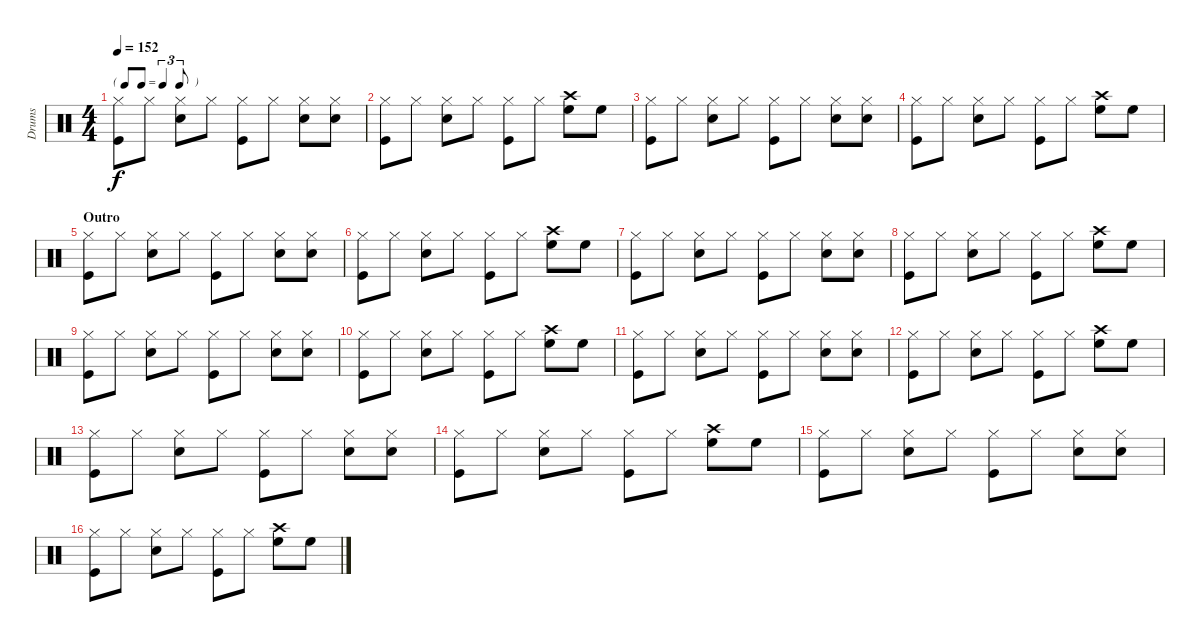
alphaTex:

\track ("Drums" "Drums") {instrument percussion}
\staff {score}
\articulation defaults
\ts (4 4)
\tf triplet8th
\tempo 152
\clef neutral
\ks c
("Hi-Hat (closed)" "Kick (hit)").8{dy f} "Hi-Hat (closed)".8 ("Hi-Hat (closed)" "Snare (hit) 2").8 "Hi-Hat (closed)".8 ("Hi-Hat (closed)" "Kick (hit)").8 "Hi-Hat (closed)".8 ("Hi-Hat (closed)" "Snare (hit) 2").8 ("Hi-Hat (closed)" "Snare (hit) 2").8 |
("Hi-Hat (closed)" "Kick (hit)").8 "Hi-Hat (closed)".8 ("Hi-Hat (closed)" "Snare (hit) 2").8 "Hi-Hat (closed)".8 ("Hi-Hat (closed)" "Kick (hit)").8 "Hi-Hat (closed)".8 ("Crash high (hit)" "High Floor Tom (hit)").8 "High Floor Tom (hit)".8 |
("Hi-Hat (closed)" "Kick (hit)").8 "Hi-Hat (closed)".8 ("Hi-Hat (closed)" "Snare (hit) 2").8 "Hi-Hat (closed)".8 ("Hi-Hat (closed)" "Kick (hit)").8 "Hi-Hat (closed)".8 ("Hi-Hat (closed)" "Snare (hit) 2").8 ("Hi-Hat (closed)" "Snare (hit) 2").8 |
("Hi-Hat (closed)" "Kick (hit)").8 "Hi-Hat (closed)".8 ("Hi-Hat (closed)" "Snare (hit) 2").8 "Hi-Hat (closed)".8 ("Hi-Hat (closed)" "Kick (hit)").8 "Hi-Hat (closed)".8 ("Crash high (hit)" "High Floor Tom (hit)").8 "High Floor Tom (hit)".8 |
\section ("" "Outro")
("Hi-Hat (closed)" "Kick (hit)").8 "Hi-Hat (closed)".8 ("Hi-Hat (closed)" "Snare (hit) 2").8 "Hi-Hat (closed)".8 ("Hi-Hat (closed)" "Kick (hit)").8 "Hi-Hat (closed)".8 ("Hi-Hat (closed)" "Snare (hit) 2").8 ("Hi-Hat (closed)" "Snare (hit) 2").8 |
("Hi-Hat (closed)" "Kick (hit)").8 "Hi-Hat (closed)".8 ("Hi-Hat (closed)" "Snare (hit) 2").8 "Hi-Hat (closed)".8 ("Hi-Hat (closed)" "Kick (hit)").8 "Hi-Hat (closed)".8 ("Crash high (hit)" "High Floor Tom (hit)").8 "High Floor Tom (hit)".8 |
("Hi-Hat (closed)" "Kick (hit)").8 "Hi-Hat (closed)".8 ("Hi-Hat (closed)" "Snare (hit) 2").8 "Hi-Hat (closed)".8 ("Hi-Hat (closed)" "Kick (hit)").8 "Hi-Hat (closed)".8 ("Hi-Hat (closed)" "Snare (hit) 2").8 ("Hi-Hat (closed)" "Snare (hit) 2").8 |
("Hi-Hat (closed)" "Kick (hit)").8 "Hi-Hat (closed)".8 ("Hi-Hat (closed)" "Snare (hit) 2").8 "Hi-Hat (closed)".8 ("Hi-Hat (closed)" "Kick (hit)").8 "Hi-Hat (closed)".8 ("Crash high (hit)" "High Floor Tom (hit)").8 "High Floor Tom (hit)".8 |
("Hi-Hat (closed)" "Kick (hit)").8 "Hi-Hat (closed)".8 ("Hi-Hat (closed)" "Snare (hit) 2").8 "Hi-Hat (closed)".8 ("Hi-Hat (closed)" "Kick (hit)").8 "Hi-Hat (closed)".8 ("Hi-Hat (closed)" "Snare (hit) 2").8 ("Hi-Hat (closed)" "Snare (hit) 2").8 |
("Hi-Hat (closed)" "Kick (hit)").8 "Hi-Hat (closed)".8 ("Hi-Hat (closed)" "Snare (hit) 2").8 "Hi-Hat (closed)".8 ("Hi-Hat (closed)" "Kick (hit)").8 "Hi-Hat (closed)".8 ("Crash high (hit)" "High Floor Tom (hit)").8 "High Floor Tom (hit)".8 |
("Hi-Hat (closed)" "Kick (hit)").8 "Hi-Hat (closed)".8 ("Hi-Hat (closed)" "Snare (hit) 2").8 "Hi-Hat (closed)".8 ("Hi-Hat (closed)" "Kick (hit)").8 "Hi-Hat (closed)".8 ("Hi-Hat (closed)" "Snare (hit) 2").8 ("Hi-Hat (closed)" "Snare (hit) 2").8 |
("Hi-Hat (closed)" "Kick (hit)").8 "Hi-Hat (closed)".8 ("Hi-Hat (closed)" "Snare (hit) 2").8 "Hi-Hat (closed)".8 ("Hi-Hat (closed)" "Kick (hit)").8 "Hi-Hat (closed)".8 ("Crash high (hit)" "High Floor Tom (hit)").8 "High Floor Tom (hit)".8 |
("Hi-Hat (closed)" "Kick (hit)").8 "Hi-Hat (closed)".8 ("Hi-Hat (closed)" "Snare (hit) 2").8 "Hi-Hat (closed)".8 ("Hi-Hat (closed)" "Kick (hit)").8 "Hi-Hat (closed)".8 ("Hi-Hat (closed)" "Snare (hit) 2").8 ("Hi-Hat (closed)" "Snare (hit) 2").8 |
("Hi-Hat (closed)" "Kick (hit)").8 "Hi-Hat (closed)".8 ("Hi-Hat (closed)" "Snare (hit) 2").8 "Hi-Hat (closed)".8 ("Hi-Hat (closed)" "Kick (hit)").8 "Hi-Hat (closed)".8 ("Crash high (hit)" "High Floor Tom (hit)").8 "High Floor Tom (hit)".8 |
("Hi-Hat (closed)" "Kick (hit)").8 "Hi-Hat (closed)".8 ("Hi-Hat (closed)" "Snare (hit) 2").8 "Hi-Hat (closed)".8 ("Hi-Hat (closed)" "Kick (hit)").8 "Hi-Hat (closed)".8 ("Hi-Hat (closed)" "Snare (hit) 2").8 ("Hi-Hat (closed)" "Snare (hit) 2").8 |
("Hi-Hat (closed)" "Kick (hit)").8 "Hi-Hat (closed)".8 ("Hi-Hat (closed)" "Snare (hit) 2").8 "Hi-Hat (closed)".8 ("Hi-Hat (closed)" "Kick (hit)").8 "Hi-Hat (closed)".8 ("Crash high (hit)" "High Floor Tom (hit)").8 "High Floor Tom (hit)".8
